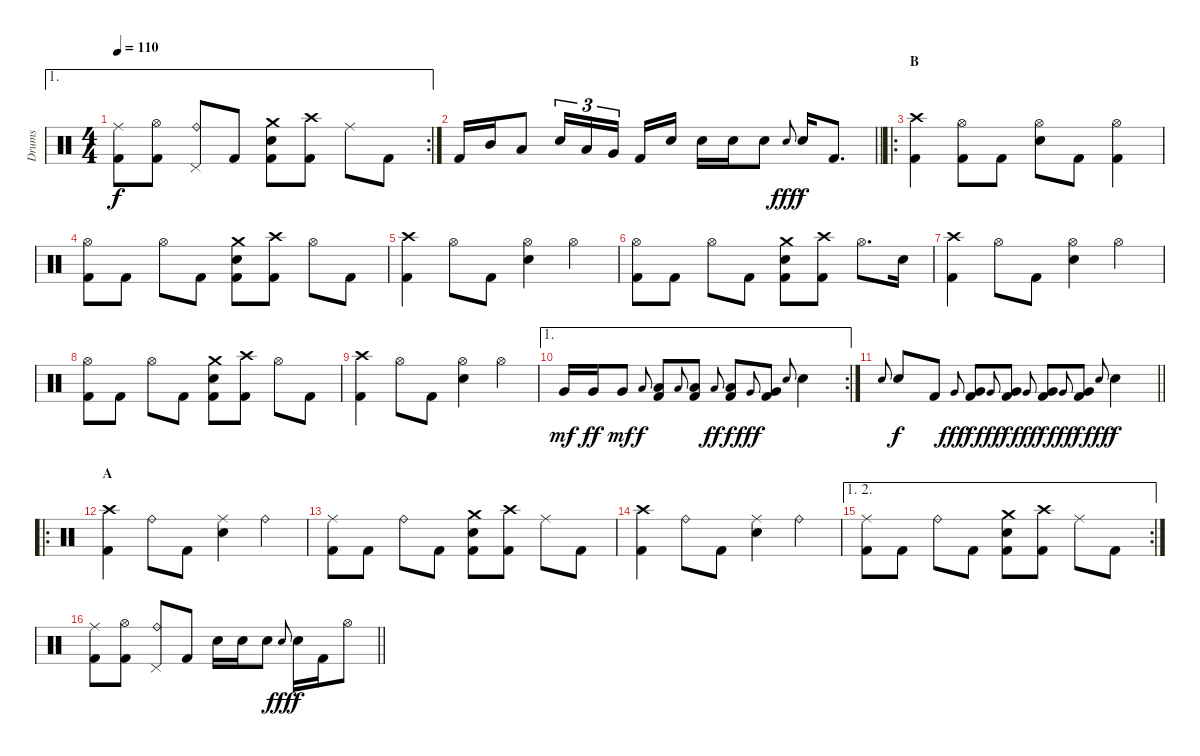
\track ("Drums" "Drums") {instrument percussion}
\staff {score}
\articulation defaults
\ae 1
\rc 2
\ts (4 4)
\tempo 110
\clef neutral
\ks c
("Ride (middle)" "Kick (hit) 2").8{dy f} ("Kick (hit) 2" "Hi-Hat (open)").8 ("Ride (bell)" "Pedal Hi-Hat (hit)").8 "Kick (hit) 2".8 ("Snare (hit) 2" "Crash medium (hit)" "Kick (hit) 2").8 ("Crash high (hit)" "Kick (hit) 2").8 "Ride (middle)".8 "Kick (hit) 2".8 |
\barLineRight lightlight "Kick (hit) 2".16 "Mid Tom (hit)".16 "Low Tom (hit)".8 "Snare (hit) 2".16{tu (3 2)} "Low Tom (hit)".16{tu (3 2)} "Very Low Tom (hit)".16{tu (3 2) beam splitsecondary} "Kick (hit) 2".16 "Snare (hit) 2".16 "Snare (hit) 2".16 "Snare (hit) 2".16 "Snare (hit) 2".8 "Snare (hit) 2".8{gr onbeat dy fff} "Snare (hit) 2".16{dy f} "Kick (hit) 2".8{d}
|
\ro
\section ("" "B")
("Kick (hit) 2" "Crash high (hit)").4 ("Hi-Hat (open)" "Kick (hit) 2").8 "Kick (hit) 2".8 ("Hi-Hat (open)" "Snare (hit) 2").8 "Kick (hit) 2".8 ("Kick (hit) 2" "Hi-Hat (open)").4 |
("Hi-Hat (open)" "Kick (hit) 2").8 "Kick (hit) 2".8 "Hi-Hat (open)".8 "Kick (hit) 2".8 ("Snare (hit) 2" "Crash medium (hit)" "Kick (hit) 2").8 ("Crash high (hit)" "Kick (hit) 2").8 "Hi-Hat (open)".8 "Kick (hit) 2".8 |
("Kick (hit) 2" "Crash high (hit)").4 "Hi-Hat (open)".8 "Kick (hit) 2".8 ("Hi-Hat (open)" "Snare (hit) 2").4 "Hi-Hat (open)".4 |
("Hi-Hat (open)" "Kick (hit) 2").8 "Kick (hit) 2".8 "Hi-Hat (open)".8 "Kick (hit) 2".8 ("Snare (hit) 2" "Crash medium (hit)" "Kick (hit) 2").8 ("Crash high (hit)" "Kick (hit) 2").8 "Hi-Hat (open)".8{d} "Snare (hit) 2".16 |
("Kick (hit) 2" "Crash high (hit)").4 "Hi-Hat (open)".8 "Kick (hit) 2".8 ("Hi-Hat (open)" "Snare (hit) 2").4 "Hi-Hat (open)".4 |
("Hi-Hat (open)" "Kick (hit) 2").8 "Kick (hit) 2".8 "Hi-Hat (open)".8 "Kick (hit) 2".8 ("Snare (hit) 2" "Crash medium (hit)" "Kick (hit) 2").8 ("Crash high (hit)" "Kick (hit) 2").8 "Hi-Hat (open)".8 "Kick (hit) 2".8 |
("Kick (hit) 2" "Crash high (hit)").4 "Hi-Hat (open)".8 "Kick (hit) 2".8 ("Hi-Hat (open)" "Snare (hit) 2").4 "Hi-Hat (open)".4 |
\ae 1
\rc 2 "Very Low Tom (hit)".16{dy mf} "Very Low Tom (hit)".16{dy ff} "Very Low Tom (hit)".8{dy mf} "Low Tom (hit)".8{gr onbeat dy f}
("Kick (hit) 2" "Low Tom (hit)").8 "Low Tom (hit)".8{gr onbeat} ("Kick (hit) 2" "Low Tom (hit)").8 "Low Tom (hit)".8{gr onbeat dy ff} ("Kick (hit) 2" "Low Tom (hit)").8{dy f} "Very Low Tom (hit)".8{gr onbeat dy fff} ("Kick (hit) 2" "Very Low Tom (hit)").8 "Snare (hit) 2".8{gr onbeat} "Snare (hit) 2".4 |
\barLineRight lightlight "Snare (hit) 2".8{gr onbeat} "Snare (hit) 2".8{dy f} "Kick (hit) 2".8 "Very Low Tom (hit)".8{gr onbeat dy fff}
("Kick (hit) 2" "Very Low Tom (hit)").8{dy f} "Very Low Tom (hit)".8{gr onbeat dy fff} ("Very Low Tom (hit)" "Kick (hit) 2").8{dy f} "Very Low Tom (hit)".8{gr onbeat dy fff} ("Very Low Tom (hit)" "Kick (hit) 2").8{dy f} "Very Low Tom (hit)".8{gr onbeat dy fff} ("Very Low Tom (hit)" "Kick (hit) 2").8{dy f} "Snare (hit) 2".8{gr onbeat dy fff} "Snare (hit) 2".4{dy f} |
\ro
\section ("" "A")
("Kick (hit) 2" "Crash high (hit)").4 "Ride (bell)".8 "Kick (hit) 2".8 ("Ride (middle)" "Snare (hit) 2").4 "Ride (bell)".4 |
("Ride (middle)" "Kick (hit) 2").8 "Kick (hit) 2".8 "Ride (bell)".8 "Kick (hit) 2".8 ("Snare (hit) 2" "Crash medium (hit)" "Kick (hit) 2").8 ("Crash high (hit)" "Kick (hit) 2").8 "Ride (middle)".8 "Kick (hit) 2".8 |
("Kick (hit) 2" "Crash high (hit)").4 "Ride (bell)".8 "Kick (hit) 2".8 ("Ride (middle)" "Snare (hit) 2").4 "Ride (bell)".4 |
\ae (1 2)
\rc 2
("Ride (middle)" "Kick (hit) 2").8 "Kick (hit) 2".8 "Ride (bell)".8 "Kick (hit) 2".8 ("Snare (hit) 2" "Crash medium (hit)" "Kick (hit) 2").8 ("Crash high (hit)" "Kick (hit) 2").8 "Ride (middle)".8 "Kick (hit) 2".8 |
\barLineRight lightlight
("Ride (middle)" "Kick (hit) 2").8 ("Kick (hit) 2" "Hi-Hat (open)").8 ("Ride (bell)" "Pedal Hi-Hat (hit)").8 "Kick (hit) 2".8 "Snare (hit) 2".16 "Snare (hit) 2".16 "Snare (hit) 2".8 "Snare (hit) 2".8{gr onbeat dy fff} "Snare (hit) 2".16{dy f} "Kick (hit) 2".16 "Hi-Hat (open)".8
